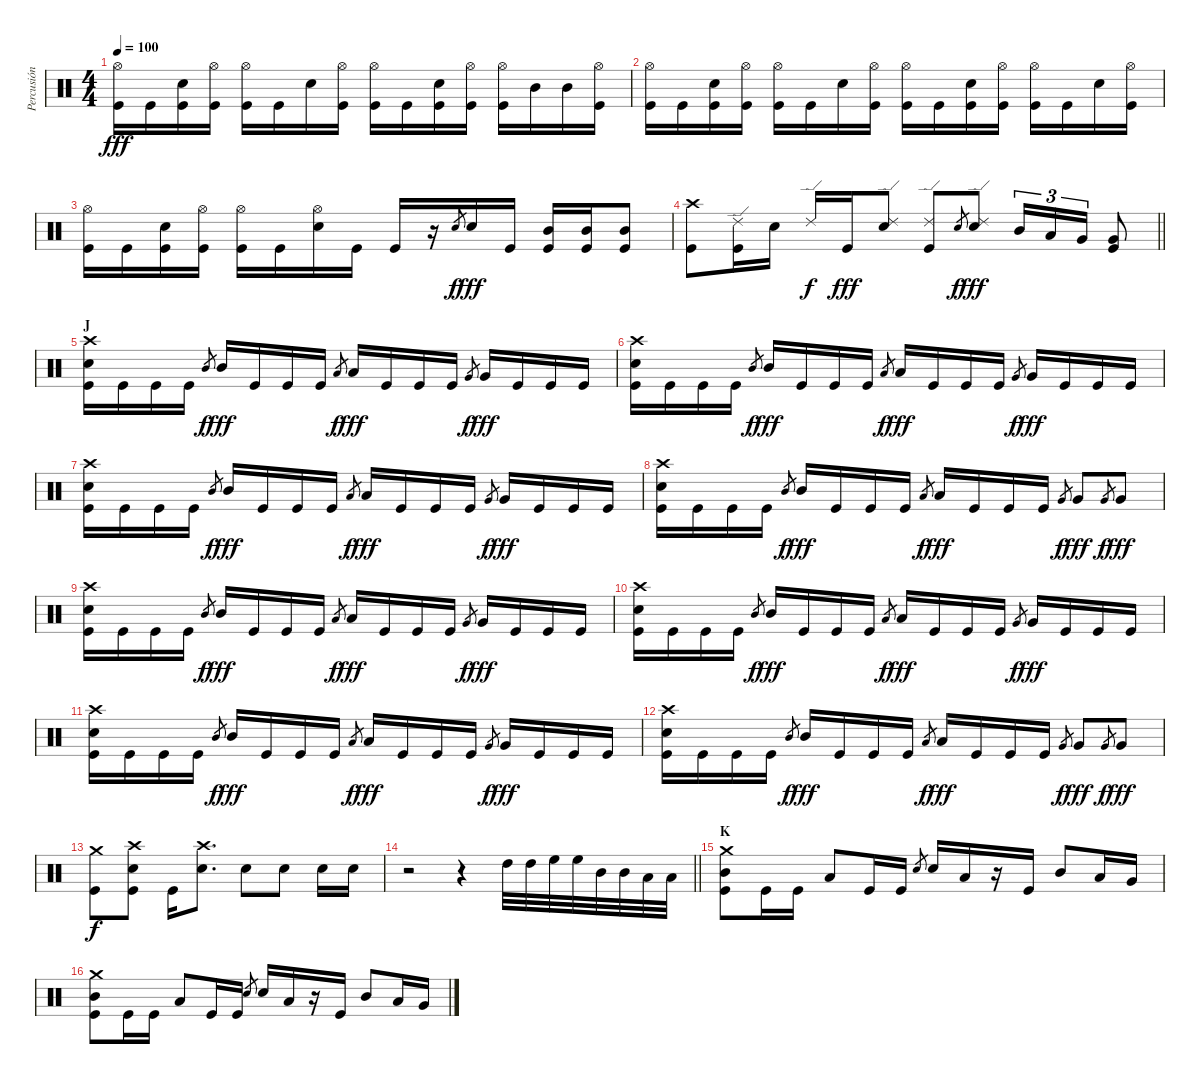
\track ("Percusión" "Percusión") {instrument percussion}
\staff {score}
\articulation defaults
\ts (4 4)
\tempo 100
\clef neutral
\ks c
("Hi-Hat (open)" "Kick (hit)").16{dy fff} "Kick (hit)".16 ("Electric Snare (hit)" "Kick (hit)").16 ("Hi-Hat (open)" "Kick (hit)").16 ("Hi-Hat (open)" "Kick (hit)").16 "Kick (hit)".16 "Electric Snare (hit)".16 ("Hi-Hat (open)" "Kick (hit)").16 ("Hi-Hat (open)" "Kick (hit)").16 "Kick (hit)".16 ("Electric Snare (hit)" "Kick (hit)").16 ("Hi-Hat (open)" "Kick (hit)").16 ("Hi-Hat (open)" "Kick (hit)").16 "Mid Tom (hit)".16 "Mid Tom (hit)".16 ("Hi-Hat (open)" "Kick (hit)").16 |
("Hi-Hat (open)" "Kick (hit)").16 "Kick (hit)".16 ("Electric Snare (hit)" "Kick (hit)").16 ("Hi-Hat (open)" "Kick (hit)").16 ("Hi-Hat (open)" "Kick (hit)").16 "Kick (hit)".16 "Electric Snare (hit)".16 ("Hi-Hat (open)" "Kick (hit)").16 ("Hi-Hat (open)" "Kick (hit)").16 "Kick (hit)".16 ("Electric Snare (hit)" "Kick (hit)").16 ("Hi-Hat (open)" "Kick (hit)").16 ("Hi-Hat (open)" "Kick (hit)").16 "Kick (hit)".16 "Electric Snare (hit)".16 ("Hi-Hat (open)" "Kick (hit)").16 |
("Hi-Hat (open)" "Kick (hit)").16 "Kick (hit)".16 ("Electric Snare (hit)" "Kick (hit)").16 ("Hi-Hat (open)" "Kick (hit)").16 ("Hi-Hat (open)" "Kick (hit)").16 "Kick (hit)".16 ("Hi-Hat (open)" "Electric Snare (hit)").16 "Kick (hit)".16 "Kick (hit)".16 r.16 "Electric Snare (hit)".8{gr dy f} "Electric Snare (hit)".16{dy fff} "Kick (hit)".16 ("Mid Tom (hit)" "Kick (hit)").16 ("Mid Tom (hit)" "Kick (hit)").16 ("Mid Tom (hit)" "Kick (hit)").8 |
\barLineRight lightlight
("Crash high (hit)" "Kick (hit)").8 ("Ride (edge) 2" "Kick (hit)").16 "Electric Snare (hit)".16 "Ride (edge) 2".16{dy f} "Kick (hit)".16{dy fff} ("Ride (edge) 2" "Electric Snare (hit)").8 ("Ride (edge) 2" "Kick (hit)").8 "Electric Snare (hit)".8{gr dy f} ("Ride (edge) 2" "Electric Snare (hit)").8{dy fff} "Mid Tom (hit)".16{tu (3 2)} "Low Tom (hit)".16{tu (3 2)} "Very Low Tom (hit)".16{tu (3 2)} ("Very Low Tom (hit)" "Kick (hit)").8 |
\section ("" "J")
("Crash high (hit)" "Electric Snare (hit)" "Kick (hit)").16 "Kick (hit)".16 "Kick (hit)".16 "Kick (hit)".16 "Mid Tom (hit)".8{gr dy f} "Mid Tom (hit)".16{dy fff} "Kick (hit)".16 "Kick (hit)".16 "Kick (hit)".16 "Low Tom (hit)".8{gr dy f} "Low Tom (hit)".16{dy fff} "Kick (hit)".16 "Kick (hit)".16 "Kick (hit)".16 "Very Low Tom (hit)".8{gr dy f} "Very Low Tom (hit)".16{dy fff} "Kick (hit)".16 "Kick (hit)".16 "Kick (hit)".16 |
("Crash high (hit)" "Electric Snare (hit)" "Kick (hit)").16 "Kick (hit)".16 "Kick (hit)".16 "Kick (hit)".16 "Mid Tom (hit)".8{gr dy f} "Mid Tom (hit)".16{dy fff} "Kick (hit)".16 "Kick (hit)".16 "Kick (hit)".16 "Low Tom (hit)".8{gr dy f} "Low Tom (hit)".16{dy fff} "Kick (hit)".16 "Kick (hit)".16 "Kick (hit)".16 "Very Low Tom (hit)".8{gr dy f} "Very Low Tom (hit)".16{dy fff} "Kick (hit)".16 "Kick (hit)".16 "Kick (hit)".16 |
("Crash high (hit)" "Electric Snare (hit)" "Kick (hit)").16 "Kick (hit)".16 "Kick (hit)".16 "Kick (hit)".16 "Mid Tom (hit)".8{gr dy f} "Mid Tom (hit)".16{dy fff} "Kick (hit)".16 "Kick (hit)".16 "Kick (hit)".16 "Low Tom (hit)".8{gr dy f} "Low Tom (hit)".16{dy fff} "Kick (hit)".16 "Kick (hit)".16 "Kick (hit)".16 "Very Low Tom (hit)".8{gr dy f} "Very Low Tom (hit)".16{dy fff} "Kick (hit)".16 "Kick (hit)".16 "Kick (hit)".16 |
("Crash high (hit)" "Electric Snare (hit)" "Kick (hit)").16 "Kick (hit)".16 "Kick (hit)".16 "Kick (hit)".16 "Mid Tom (hit)".8{gr dy f} "Mid Tom (hit)".16{dy fff} "Kick (hit)".16 "Kick (hit)".16 "Kick (hit)".16 "Low Tom (hit)".8{gr dy f} "Low Tom (hit)".16{dy fff} "Kick (hit)".16 "Kick (hit)".16 "Kick (hit)".16 "Very Low Tom (hit)".8{gr dy f} "Very Low Tom (hit)".8{dy fff} "Very Low Tom (hit)".8{gr dy f} "Very Low Tom (hit)".8{dy fff} |
("Crash high (hit)" "Electric Snare (hit)" "Kick (hit)").16 "Kick (hit)".16 "Kick (hit)".16 "Kick (hit)".16 "Mid Tom (hit)".8{gr dy f} "Mid Tom (hit)".16{dy fff} "Kick (hit)".16 "Kick (hit)".16 "Kick (hit)".16 "Low Tom (hit)".8{gr dy f} "Low Tom (hit)".16{dy fff} "Kick (hit)".16 "Kick (hit)".16 "Kick (hit)".16 "Very Low Tom (hit)".8{gr dy f} "Very Low Tom (hit)".16{dy fff} "Kick (hit)".16 "Kick (hit)".16 "Kick (hit)".16 |
("Crash high (hit)" "Electric Snare (hit)" "Kick (hit)").16 "Kick (hit)".16 "Kick (hit)".16 "Kick (hit)".16 "Mid Tom (hit)".8{gr dy f} "Mid Tom (hit)".16{dy fff} "Kick (hit)".16 "Kick (hit)".16 "Kick (hit)".16 "Low Tom (hit)".8{gr dy f} "Low Tom (hit)".16{dy fff} "Kick (hit)".16 "Kick (hit)".16 "Kick (hit)".16 "Very Low Tom (hit)".8{gr dy f} "Very Low Tom (hit)".16{dy fff} "Kick (hit)".16 "Kick (hit)".16 "Kick (hit)".16 |
("Crash high (hit)" "Electric Snare (hit)" "Kick (hit)").16 "Kick (hit)".16 "Kick (hit)".16 "Kick (hit)".16 "Mid Tom (hit)".8{gr dy f} "Mid Tom (hit)".16{dy fff} "Kick (hit)".16 "Kick (hit)".16 "Kick (hit)".16 "Low Tom (hit)".8{gr dy f} "Low Tom (hit)".16{dy fff} "Kick (hit)".16 "Kick (hit)".16 "Kick (hit)".16 "Very Low Tom (hit)".8{gr dy f} "Very Low Tom (hit)".16{dy fff} "Kick (hit)".16 "Kick (hit)".16 "Kick (hit)".16 |
("Crash high (hit)" "Electric Snare (hit)" "Kick (hit)").16 "Kick (hit)".16 "Kick (hit)".16 "Kick (hit)".16 "Mid Tom (hit)".8{gr dy f} "Mid Tom (hit)".16{dy fff} "Kick (hit)".16 "Kick (hit)".16 "Kick (hit)".16 "Low Tom (hit)".8{gr dy f} "Low Tom (hit)".16{dy fff} "Kick (hit)".16 "Kick (hit)".16 "Kick (hit)".16 "Very Low Tom (hit)".8{gr dy f} "Very Low Tom (hit)".8{dy fff} "Very Low Tom (hit)".8{gr dy f} "Very Low Tom (hit)".8{dy fff} |
("Crash medium (hit)" "Kick (hit)").8{dy f} ("Crash high (hit)" "Electric Snare (hit)" "Kick (hit)").8 "Kick (hit)".16 ("Crash high (hit)" "Electric Snare (hit)").8{d} "Electric Snare (hit)".8 "Electric Snare (hit)".8 "Electric Snare (hit)".16 "Electric Snare (hit)".16 |
\barLineRight lightlight
r.2 r.4 "High Tom (hit)".32 "High Tom (hit)".32 "High Floor Tom (hit)".32 "High Floor Tom (hit)".32 "Mid Tom (hit)".32 "Mid Tom (hit)".32 "Low Tom (hit)".32 "Low Tom (hit)".32 |
\section ("" "K")
("Crash medium (hit)" "Mid Tom (hit)" "Kick (hit)").8 "Kick (hit)".16 "Kick (hit)".16 "Low Tom (hit)".8 "Kick (hit)".16 "Kick (hit)".16 "Electric Snare (hit)".8{gr} "Electric Snare (hit)".16 "Low Tom (hit)".16 r.16 "Kick (hit)".16 "Mid Tom (hit)".8 "Low Tom (hit)".16 "Very Low Tom (hit)".16 |
("Crash medium (hit)" "Mid Tom (hit)" "Kick (hit)").8 "Kick (hit)".16 "Kick (hit)".16 "Low Tom (hit)".8 "Kick (hit)".16 "Kick (hit)".16 "Electric Snare (hit)".8{gr} "Electric Snare (hit)".16 "Low Tom (hit)".16 r.16 "Kick (hit)".16 "Mid Tom (hit)".8 "Low Tom (hit)".16 "Very Low Tom (hit)".16
